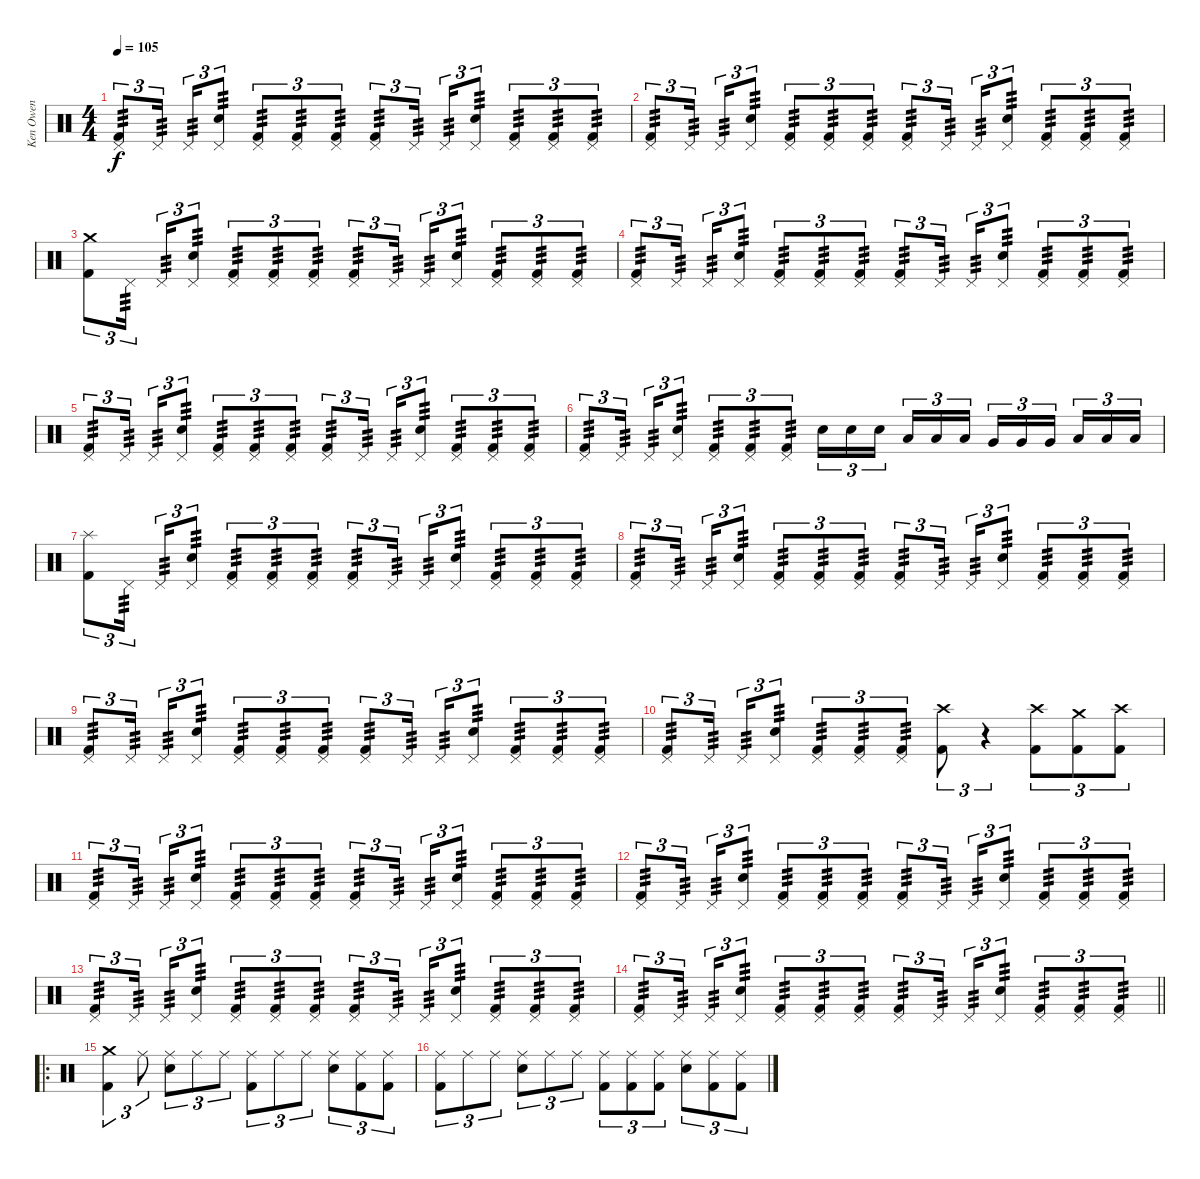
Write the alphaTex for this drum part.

\track ("Ken Owen" "Ken Owen") {instrument percussion}
\staff {score}
\articulation defaults
\ts (4 4)
\tempo 105
\clef neutral
\ks c
("Pedal Hi-Hat (hit)" "Kick (hit) 2").8{tu (3 2) tp 3 dy f} "Pedal Hi-Hat (hit)".16{tu (3 2) tp 3 beam splitsecondary} "Pedal Hi-Hat (hit)".16{tu (3 2) tp 3} ("Pedal Hi-Hat (hit)" "Electric Snare (hit)").8{tu (3 2) tp 3} ("Pedal Hi-Hat (hit)" "Kick (hit) 2").8{tu (3 2) tp 3} ("Pedal Hi-Hat (hit)" "Kick (hit) 2").8{tu (3 2) tp 3} ("Pedal Hi-Hat (hit)" "Kick (hit) 2").8{tu (3 2) tp 3} ("Pedal Hi-Hat (hit)" "Kick (hit) 2").8{tu (3 2) tp 3} "Pedal Hi-Hat (hit)".16{tu (3 2) tp 3 beam splitsecondary} "Pedal Hi-Hat (hit)".16{tu (3 2) tp 3} ("Pedal Hi-Hat (hit)" "Electric Snare (hit)").8{tu (3 2) tp 3} ("Pedal Hi-Hat (hit)" "Kick (hit) 2").8{tu (3 2) tp 3} ("Pedal Hi-Hat (hit)" "Kick (hit) 2").8{tu (3 2) tp 3} ("Pedal Hi-Hat (hit)" "Kick (hit) 2").8{tu (3 2) tp 3} |
("Pedal Hi-Hat (hit)" "Kick (hit) 2").8{tu (3 2) tp 3} "Pedal Hi-Hat (hit)".16{tu (3 2) tp 3 beam splitsecondary} "Pedal Hi-Hat (hit)".16{tu (3 2) tp 3} ("Pedal Hi-Hat (hit)" "Electric Snare (hit)").8{tu (3 2) tp 3} ("Pedal Hi-Hat (hit)" "Kick (hit) 2").8{tu (3 2) tp 3} ("Pedal Hi-Hat (hit)" "Kick (hit) 2").8{tu (3 2) tp 3} ("Pedal Hi-Hat (hit)" "Kick (hit) 2").8{tu (3 2) tp 3} ("Pedal Hi-Hat (hit)" "Kick (hit) 2").8{tu (3 2) tp 3} "Pedal Hi-Hat (hit)".16{tu (3 2) tp 3 beam splitsecondary} "Pedal Hi-Hat (hit)".16{tu (3 2) tp 3} ("Pedal Hi-Hat (hit)" "Electric Snare (hit)").8{tu (3 2) tp 3} ("Pedal Hi-Hat (hit)" "Kick (hit) 2").8{tu (3 2) tp 3} ("Pedal Hi-Hat (hit)" "Kick (hit) 2").8{tu (3 2) tp 3} ("Pedal Hi-Hat (hit)" "Kick (hit) 2").8{tu (3 2) tp 3} |
("Crash medium (hit)" "Kick (hit) 2").8{tu (3 2)} "Pedal Hi-Hat (hit)".16{tu (3 2) tp 3 beam splitsecondary} "Pedal Hi-Hat (hit)".16{tu (3 2) tp 3} ("Pedal Hi-Hat (hit)" "Electric Snare (hit)").8{tu (3 2) tp 3} ("Pedal Hi-Hat (hit)" "Kick (hit) 2").8{tu (3 2) tp 3} ("Pedal Hi-Hat (hit)" "Kick (hit) 2").8{tu (3 2) tp 3} ("Pedal Hi-Hat (hit)" "Kick (hit) 2").8{tu (3 2) tp 3} ("Pedal Hi-Hat (hit)" "Kick (hit) 2").8{tu (3 2) tp 3} "Pedal Hi-Hat (hit)".16{tu (3 2) tp 3 beam splitsecondary} "Pedal Hi-Hat (hit)".16{tu (3 2) tp 3} ("Pedal Hi-Hat (hit)" "Electric Snare (hit)").8{tu (3 2) tp 3} ("Pedal Hi-Hat (hit)" "Kick (hit) 2").8{tu (3 2) tp 3} ("Pedal Hi-Hat (hit)" "Kick (hit) 2").8{tu (3 2) tp 3} ("Pedal Hi-Hat (hit)" "Kick (hit) 2").8{tu (3 2) tp 3} |
("Pedal Hi-Hat (hit)" "Kick (hit) 2").8{tu (3 2) tp 3} "Pedal Hi-Hat (hit)".16{tu (3 2) tp 3 beam splitsecondary} "Pedal Hi-Hat (hit)".16{tu (3 2) tp 3} ("Pedal Hi-Hat (hit)" "Electric Snare (hit)").8{tu (3 2) tp 3} ("Pedal Hi-Hat (hit)" "Kick (hit) 2").8{tu (3 2) tp 3} ("Pedal Hi-Hat (hit)" "Kick (hit) 2").8{tu (3 2) tp 3} ("Pedal Hi-Hat (hit)" "Kick (hit) 2").8{tu (3 2) tp 3} ("Pedal Hi-Hat (hit)" "Kick (hit) 2").8{tu (3 2) tp 3} "Pedal Hi-Hat (hit)".16{tu (3 2) tp 3 beam splitsecondary} "Pedal Hi-Hat (hit)".16{tu (3 2) tp 3} ("Pedal Hi-Hat (hit)" "Electric Snare (hit)").8{tu (3 2) tp 3} ("Pedal Hi-Hat (hit)" "Kick (hit) 2").8{tu (3 2) tp 3} ("Pedal Hi-Hat (hit)" "Kick (hit) 2").8{tu (3 2) tp 3} ("Pedal Hi-Hat (hit)" "Kick (hit) 2").8{tu (3 2) tp 3} |
("Pedal Hi-Hat (hit)" "Kick (hit) 2").8{tu (3 2) tp 3} "Pedal Hi-Hat (hit)".16{tu (3 2) tp 3 beam splitsecondary} "Pedal Hi-Hat (hit)".16{tu (3 2) tp 3} ("Pedal Hi-Hat (hit)" "Electric Snare (hit)").8{tu (3 2) tp 3} ("Pedal Hi-Hat (hit)" "Kick (hit) 2").8{tu (3 2) tp 3} ("Pedal Hi-Hat (hit)" "Kick (hit) 2").8{tu (3 2) tp 3} ("Pedal Hi-Hat (hit)" "Kick (hit) 2").8{tu (3 2) tp 3} ("Pedal Hi-Hat (hit)" "Kick (hit) 2").8{tu (3 2) tp 3} "Pedal Hi-Hat (hit)".16{tu (3 2) tp 3 beam splitsecondary} "Pedal Hi-Hat (hit)".16{tu (3 2) tp 3} ("Pedal Hi-Hat (hit)" "Electric Snare (hit)").8{tu (3 2) tp 3} ("Pedal Hi-Hat (hit)" "Kick (hit) 2").8{tu (3 2) tp 3} ("Pedal Hi-Hat (hit)" "Kick (hit) 2").8{tu (3 2) tp 3} ("Pedal Hi-Hat (hit)" "Kick (hit) 2").8{tu (3 2) tp 3} |
("Pedal Hi-Hat (hit)" "Kick (hit) 2").8{tu (3 2) tp 3} "Pedal Hi-Hat (hit)".16{tu (3 2) tp 3 beam splitsecondary} "Pedal Hi-Hat (hit)".16{tu (3 2) tp 3} ("Pedal Hi-Hat (hit)" "Electric Snare (hit)").8{tu (3 2) tp 3} ("Pedal Hi-Hat (hit)" "Kick (hit) 2").8{tu (3 2) tp 3} ("Pedal Hi-Hat (hit)" "Kick (hit) 2").8{tu (3 2) tp 3} ("Pedal Hi-Hat (hit)" "Kick (hit) 2").8{tu (3 2) tp 3} "Electric Snare (hit)".16{tu (3 2)} "Electric Snare (hit)".16{tu (3 2)} "Electric Snare (hit)".16{tu (3 2) beam splitsecondary} "Low Tom (hit)".16{tu (3 2)} "Low Tom (hit)".16{tu (3 2)} "Low Tom (hit)".16{tu (3 2)} "Very Low Tom (hit)".16{tu (3 2)} "Very Low Tom (hit)".16{tu (3 2)} "Very Low Tom (hit)".16{tu (3 2) beam splitsecondary} "Low Floor Tom (hit)".16{tu (3 2)} "Low Floor Tom (hit)".16{tu (3 2)} "Low Floor Tom (hit)".16{tu (3 2)} |
("Splash (hit)" "Kick (hit) 2").8{tu (3 2)} "Pedal Hi-Hat (hit)".16{tu (3 2) tp 3 beam splitsecondary} "Pedal Hi-Hat (hit)".16{tu (3 2) tp 3} ("Pedal Hi-Hat (hit)" "Electric Snare (hit)").8{tu (3 2) tp 3} ("Pedal Hi-Hat (hit)" "Kick (hit) 2").8{tu (3 2) tp 3} ("Pedal Hi-Hat (hit)" "Kick (hit) 2").8{tu (3 2) tp 3} ("Pedal Hi-Hat (hit)" "Kick (hit) 2").8{tu (3 2) tp 3} ("Pedal Hi-Hat (hit)" "Kick (hit) 2").8{tu (3 2) tp 3} "Pedal Hi-Hat (hit)".16{tu (3 2) tp 3 beam splitsecondary} "Pedal Hi-Hat (hit)".16{tu (3 2) tp 3} ("Pedal Hi-Hat (hit)" "Electric Snare (hit)").8{tu (3 2) tp 3} ("Pedal Hi-Hat (hit)" "Kick (hit) 2").8{tu (3 2) tp 3} ("Pedal Hi-Hat (hit)" "Kick (hit) 2").8{tu (3 2) tp 3} ("Pedal Hi-Hat (hit)" "Kick (hit) 2").8{tu (3 2) tp 3} |
("Pedal Hi-Hat (hit)" "Kick (hit) 2").8{tu (3 2) tp 3} "Pedal Hi-Hat (hit)".16{tu (3 2) tp 3 beam splitsecondary} "Pedal Hi-Hat (hit)".16{tu (3 2) tp 3} ("Pedal Hi-Hat (hit)" "Electric Snare (hit)").8{tu (3 2) tp 3} ("Pedal Hi-Hat (hit)" "Kick (hit) 2").8{tu (3 2) tp 3} ("Pedal Hi-Hat (hit)" "Kick (hit) 2").8{tu (3 2) tp 3} ("Pedal Hi-Hat (hit)" "Kick (hit) 2").8{tu (3 2) tp 3} ("Pedal Hi-Hat (hit)" "Kick (hit) 2").8{tu (3 2) tp 3} "Pedal Hi-Hat (hit)".16{tu (3 2) tp 3 beam splitsecondary} "Pedal Hi-Hat (hit)".16{tu (3 2) tp 3} ("Pedal Hi-Hat (hit)" "Electric Snare (hit)").8{tu (3 2) tp 3} ("Pedal Hi-Hat (hit)" "Kick (hit) 2").8{tu (3 2) tp 3} ("Pedal Hi-Hat (hit)" "Kick (hit) 2").8{tu (3 2) tp 3} ("Pedal Hi-Hat (hit)" "Kick (hit) 2").8{tu (3 2) tp 3} |
("Pedal Hi-Hat (hit)" "Kick (hit) 2").8{tu (3 2) tp 3} "Pedal Hi-Hat (hit)".16{tu (3 2) tp 3 beam splitsecondary} "Pedal Hi-Hat (hit)".16{tu (3 2) tp 3} ("Pedal Hi-Hat (hit)" "Electric Snare (hit)").8{tu (3 2) tp 3} ("Pedal Hi-Hat (hit)" "Kick (hit) 2").8{tu (3 2) tp 3} ("Pedal Hi-Hat (hit)" "Kick (hit) 2").8{tu (3 2) tp 3} ("Pedal Hi-Hat (hit)" "Kick (hit) 2").8{tu (3 2) tp 3} ("Pedal Hi-Hat (hit)" "Kick (hit) 2").8{tu (3 2) tp 3} "Pedal Hi-Hat (hit)".16{tu (3 2) tp 3 beam splitsecondary} "Pedal Hi-Hat (hit)".16{tu (3 2) tp 3} ("Pedal Hi-Hat (hit)" "Electric Snare (hit)").8{tu (3 2) tp 3} ("Pedal Hi-Hat (hit)" "Kick (hit) 2").8{tu (3 2) tp 3} ("Pedal Hi-Hat (hit)" "Kick (hit) 2").8{tu (3 2) tp 3} ("Pedal Hi-Hat (hit)" "Kick (hit) 2").8{tu (3 2) tp 3} |
("Pedal Hi-Hat (hit)" "Kick (hit) 2").8{tu (3 2) tp 3} "Pedal Hi-Hat (hit)".16{tu (3 2) tp 3 beam splitsecondary} "Pedal Hi-Hat (hit)".16{tu (3 2) tp 3} ("Pedal Hi-Hat (hit)" "Electric Snare (hit)").8{tu (3 2) tp 3} ("Pedal Hi-Hat (hit)" "Kick (hit) 2").8{tu (3 2) tp 3} ("Pedal Hi-Hat (hit)" "Kick (hit) 2").8{tu (3 2) tp 3} ("Pedal Hi-Hat (hit)" "Kick (hit) 2").8{tu (3 2) tp 3} ("Crash high (hit)" "Kick (hit) 2").8{tu (3 2)} r.4{tu (3 2)} ("Crash high (hit)" "Kick (hit) 2").8{tu (3 2)} ("Crash medium (hit)" "Kick (hit) 2").8{tu (3 2)} ("Crash high (hit)" "Kick (hit) 2").8{tu (3 2)} |
("Pedal Hi-Hat (hit)" "Kick (hit) 2").8{tu (3 2) tp 3} "Pedal Hi-Hat (hit)".16{tu (3 2) tp 3 beam splitsecondary} "Pedal Hi-Hat (hit)".16{tu (3 2) tp 3} ("Pedal Hi-Hat (hit)" "Electric Snare (hit)").8{tu (3 2) tp 3} ("Pedal Hi-Hat (hit)" "Kick (hit) 2").8{tu (3 2) tp 3} ("Pedal Hi-Hat (hit)" "Kick (hit) 2").8{tu (3 2) tp 3} ("Pedal Hi-Hat (hit)" "Kick (hit) 2").8{tu (3 2) tp 3} ("Pedal Hi-Hat (hit)" "Kick (hit) 2").8{tu (3 2) tp 3} "Pedal Hi-Hat (hit)".16{tu (3 2) tp 3 beam splitsecondary} "Pedal Hi-Hat (hit)".16{tu (3 2) tp 3} ("Pedal Hi-Hat (hit)" "Electric Snare (hit)").8{tu (3 2) tp 3} ("Pedal Hi-Hat (hit)" "Kick (hit) 2").8{tu (3 2) tp 3} ("Pedal Hi-Hat (hit)" "Kick (hit) 2").8{tu (3 2) tp 3} ("Pedal Hi-Hat (hit)" "Kick (hit) 2").8{tu (3 2) tp 3} |
("Pedal Hi-Hat (hit)" "Kick (hit) 2").8{tu (3 2) tp 3} "Pedal Hi-Hat (hit)".16{tu (3 2) tp 3 beam splitsecondary} "Pedal Hi-Hat (hit)".16{tu (3 2) tp 3} ("Pedal Hi-Hat (hit)" "Electric Snare (hit)").8{tu (3 2) tp 3} ("Pedal Hi-Hat (hit)" "Kick (hit) 2").8{tu (3 2) tp 3} ("Pedal Hi-Hat (hit)" "Kick (hit) 2").8{tu (3 2) tp 3} ("Pedal Hi-Hat (hit)" "Kick (hit) 2").8{tu (3 2) tp 3} ("Pedal Hi-Hat (hit)" "Kick (hit) 2").8{tu (3 2) tp 3} "Pedal Hi-Hat (hit)".16{tu (3 2) tp 3 beam splitsecondary} "Pedal Hi-Hat (hit)".16{tu (3 2) tp 3} ("Pedal Hi-Hat (hit)" "Electric Snare (hit)").8{tu (3 2) tp 3} ("Pedal Hi-Hat (hit)" "Kick (hit) 2").8{tu (3 2) tp 3} ("Pedal Hi-Hat (hit)" "Kick (hit) 2").8{tu (3 2) tp 3} ("Pedal Hi-Hat (hit)" "Kick (hit) 2").8{tu (3 2) tp 3} |
("Pedal Hi-Hat (hit)" "Kick (hit) 2").8{tu (3 2) tp 3} "Pedal Hi-Hat (hit)".16{tu (3 2) tp 3 beam splitsecondary} "Pedal Hi-Hat (hit)".16{tu (3 2) tp 3} ("Pedal Hi-Hat (hit)" "Electric Snare (hit)").8{tu (3 2) tp 3} ("Pedal Hi-Hat (hit)" "Kick (hit) 2").8{tu (3 2) tp 3} ("Pedal Hi-Hat (hit)" "Kick (hit) 2").8{tu (3 2) tp 3} ("Pedal Hi-Hat (hit)" "Kick (hit) 2").8{tu (3 2) tp 3} ("Pedal Hi-Hat (hit)" "Kick (hit) 2").8{tu (3 2) tp 3} "Pedal Hi-Hat (hit)".16{tu (3 2) tp 3 beam splitsecondary} "Pedal Hi-Hat (hit)".16{tu (3 2) tp 3} ("Pedal Hi-Hat (hit)" "Electric Snare (hit)").8{tu (3 2) tp 3} ("Pedal Hi-Hat (hit)" "Kick (hit) 2").8{tu (3 2) tp 3} ("Pedal Hi-Hat (hit)" "Kick (hit) 2").8{tu (3 2) tp 3} ("Pedal Hi-Hat (hit)" "Kick (hit) 2").8{tu (3 2) tp 3} |
\barLineRight lightlight
("Pedal Hi-Hat (hit)" "Kick (hit) 2").8{tu (3 2) tp 3} "Pedal Hi-Hat (hit)".16{tu (3 2) tp 3 beam splitsecondary} "Pedal Hi-Hat (hit)".16{tu (3 2) tp 3} ("Pedal Hi-Hat (hit)" "Electric Snare (hit)").8{tu (3 2) tp 3} ("Pedal Hi-Hat (hit)" "Kick (hit) 2").8{tu (3 2) tp 3} ("Pedal Hi-Hat (hit)" "Kick (hit) 2").8{tu (3 2) tp 3} ("Pedal Hi-Hat (hit)" "Kick (hit) 2").8{tu (3 2) tp 3} ("Pedal Hi-Hat (hit)" "Kick (hit) 2").8{tu (3 2) tp 3} "Pedal Hi-Hat (hit)".16{tu (3 2) tp 3 beam splitsecondary} "Pedal Hi-Hat (hit)".16{tu (3 2) tp 3} ("Pedal Hi-Hat (hit)" "Electric Snare (hit)").8{tu (3 2) tp 3} ("Pedal Hi-Hat (hit)" "Kick (hit) 2").8{tu (3 2) tp 3} ("Pedal Hi-Hat (hit)" "Kick (hit) 2").8{tu (3 2) tp 3} ("Pedal Hi-Hat (hit)" "Kick (hit) 2").8{tu (3 2) tp 3} |
\ro
("Crash medium (hit)" "Kick (hit) 2").4{tu (3 2)} "Ride (middle)".8{tu (3 2)} ("Ride (middle)" "Electric Snare (hit)").8{tu (3 2)} "Ride (middle)".8{tu (3 2)} "Ride (middle)".8{tu (3 2)} ("Ride (middle)" "Kick (hit) 2").8{tu (3 2)} "Ride (middle)".8{tu (3 2)} "Ride (middle)".8{tu (3 2)} ("Ride (middle)" "Electric Snare (hit)").8{tu (3 2)} ("Ride (middle)" "Kick (hit) 2").8{tu (3 2)} ("Ride (middle)" "Kick (hit) 2").8{tu (3 2)} |
("Ride (middle)" "Kick (hit) 2").8{tu (3 2)} "Ride (middle)".8{tu (3 2)} "Ride (middle)".8{tu (3 2)} ("Ride (middle)" "Electric Snare (hit)").8{tu (3 2)} "Ride (middle)".8{tu (3 2)} "Ride (middle)".8{tu (3 2)} ("Ride (middle)" "Kick (hit) 2").8{tu (3 2)} ("Ride (middle)" "Kick (hit) 2").8{tu (3 2)} ("Ride (middle)" "Kick (hit) 2").8{tu (3 2)} ("Ride (middle)" "Electric Snare (hit)").8{tu (3 2)} ("Ride (middle)" "Kick (hit) 2").8{tu (3 2)} ("Ride (middle)" "Kick (hit) 2").8{tu (3 2)}
